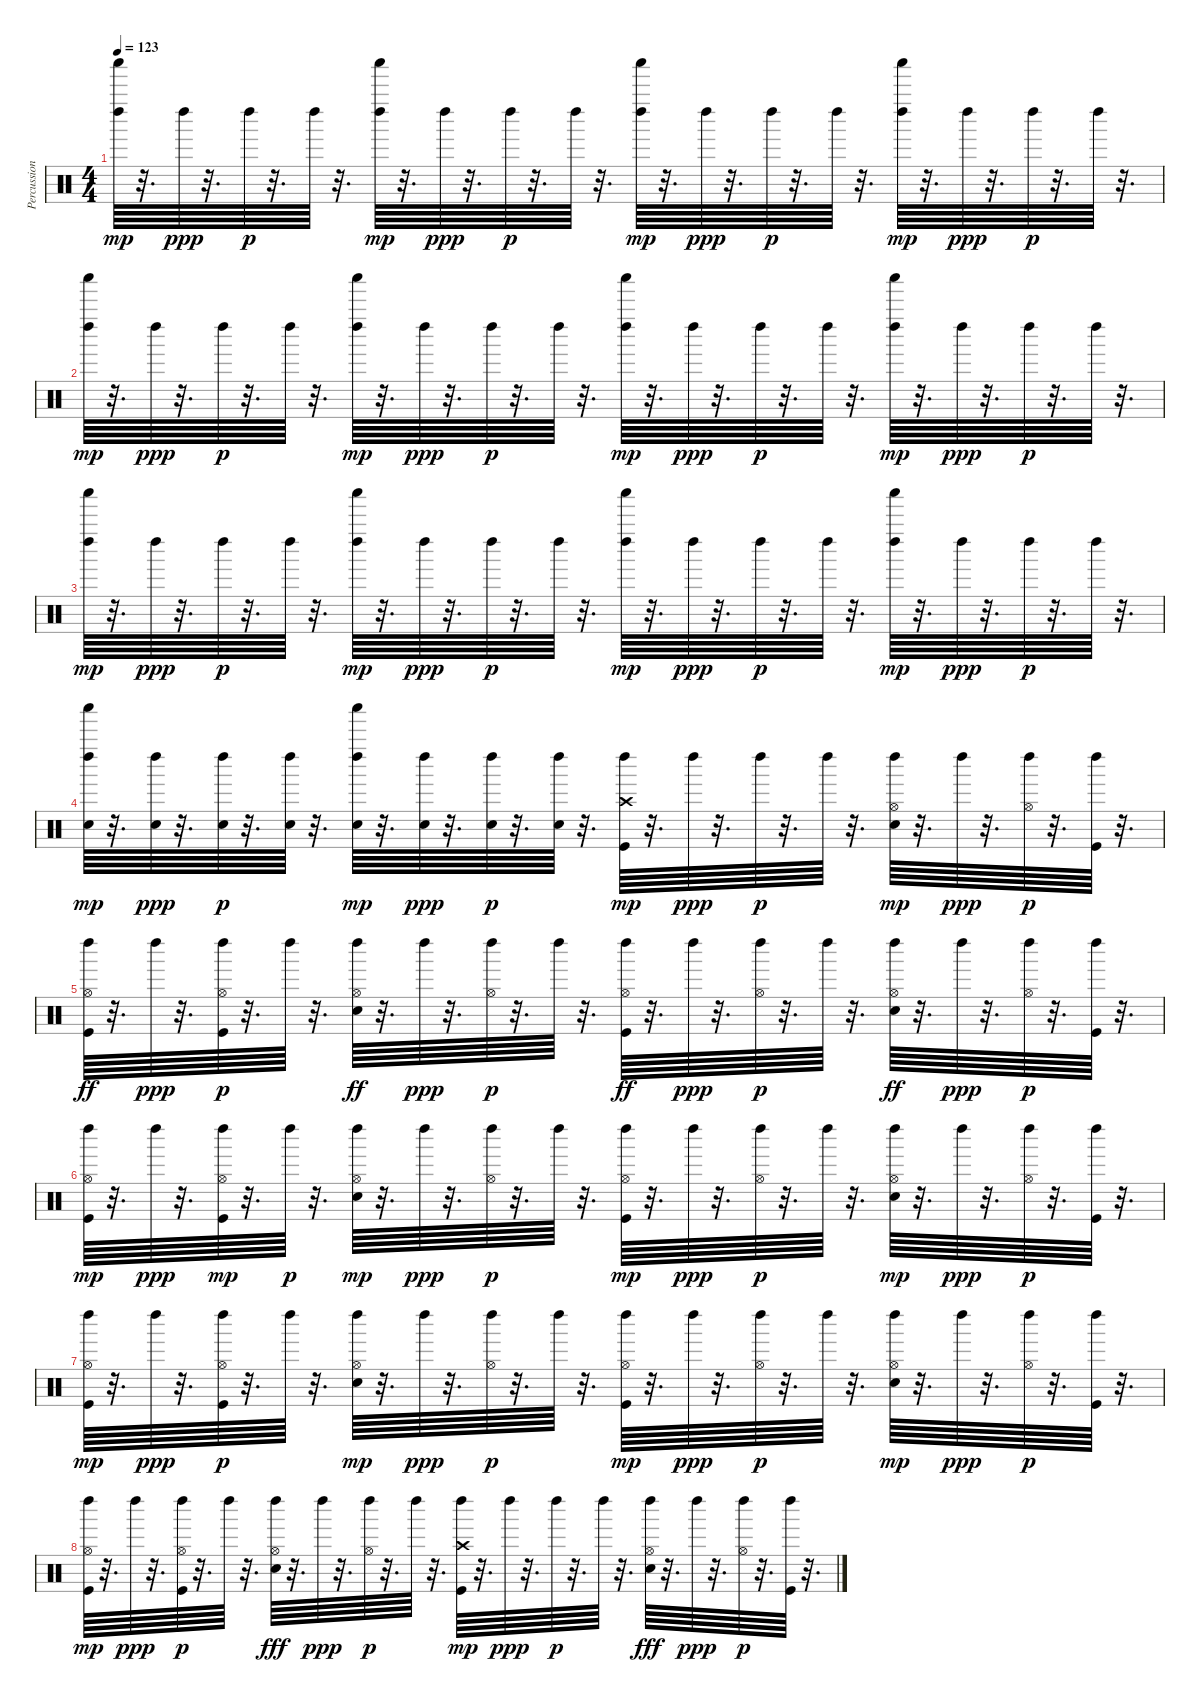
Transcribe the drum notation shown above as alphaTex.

\track ("Percussion" "Percussion") {instrument percussion}
\staff {score}
\articulation defaults
\ts (4 4)
\tempo 123
\clef neutral
\ks c
("Left Maraca (hit)" "Shaker (hit)").64{dy mp} r.32{d} "Left Maraca (hit)".64{dy ppp} r.32{d} "Left Maraca (hit)".64{dy p} r.32{d} "Left Maraca (hit)".64 r.32{d} ("Left Maraca (hit)" "Shaker (hit)").64{dy mp} r.32{d} "Left Maraca (hit)".64{dy ppp} r.32{d} "Left Maraca (hit)".64{dy p} r.32{d} "Left Maraca (hit)".64 r.32{d} ("Left Maraca (hit)" "Shaker (hit)").64{dy mp} r.32{d} "Left Maraca (hit)".64{dy ppp} r.32{d} "Left Maraca (hit)".64{dy p} r.32{d} "Left Maraca (hit)".64 r.32{d} ("Left Maraca (hit)" "Shaker (hit)").64{dy mp} r.32{d} "Left Maraca (hit)".64{dy ppp} r.32{d} "Left Maraca (hit)".64{dy p} r.32{d} "Left Maraca (hit)".64 r.32{d} |
("Left Maraca (hit)" "Shaker (hit)").64{dy mp} r.32{d} "Left Maraca (hit)".64{dy ppp} r.32{d} "Left Maraca (hit)".64{dy p} r.32{d} "Left Maraca (hit)".64 r.32{d} ("Left Maraca (hit)" "Shaker (hit)").64{dy mp} r.32{d} "Left Maraca (hit)".64{dy ppp} r.32{d} "Left Maraca (hit)".64{dy p} r.32{d} "Left Maraca (hit)".64 r.32{d} ("Left Maraca (hit)" "Shaker (hit)").64{dy mp} r.32{d} "Left Maraca (hit)".64{dy ppp} r.32{d} "Left Maraca (hit)".64{dy p} r.32{d} "Left Maraca (hit)".64 r.32{d} ("Left Maraca (hit)" "Shaker (hit)").64{dy mp} r.32{d} "Left Maraca (hit)".64{dy ppp} r.32{d} "Left Maraca (hit)".64{dy p} r.32{d} "Left Maraca (hit)".64 r.32{d} |
("Left Maraca (hit)" "Shaker (hit)").64{dy mp} r.32{d} "Left Maraca (hit)".64{dy ppp} r.32{d} "Left Maraca (hit)".64{dy p} r.32{d} "Left Maraca (hit)".64 r.32{d} ("Left Maraca (hit)" "Shaker (hit)").64{dy mp} r.32{d} "Left Maraca (hit)".64{dy ppp} r.32{d} "Left Maraca (hit)".64{dy p} r.32{d} "Left Maraca (hit)".64 r.32{d} ("Left Maraca (hit)" "Shaker (hit)").64{dy mp} r.32{d} "Left Maraca (hit)".64{dy ppp} r.32{d} "Left Maraca (hit)".64{dy p} r.32{d} "Left Maraca (hit)".64 r.32{d} ("Left Maraca (hit)" "Shaker (hit)").64{dy mp} r.32{d} "Left Maraca (hit)".64{dy ppp} r.32{d} "Left Maraca (hit)".64{dy p} r.32{d} "Left Maraca (hit)".64 r.32{d} |
("Electric Snare (hit)" "Left Maraca (hit)" "Shaker (hit)").64{dy mp} r.32{d} ("Electric Snare (hit)" "Left Maraca (hit)").64{dy ppp} r.32{d} ("Electric Snare (hit)" "Left Maraca (hit)").64{dy p} r.32{d} ("Electric Snare (hit)" "Left Maraca (hit)").64 r.32{d} ("Shaker (hit)" "Electric Snare (hit)" "Left Maraca (hit)").64{dy mp} r.32{d} ("Electric Snare (hit)" "Left Maraca (hit)").64{dy ppp} r.32{d} ("Electric Snare (hit)" "Left Maraca (hit)").64{dy p} r.32{d} ("Electric Snare (hit)" "Left Maraca (hit)").64 r.32{d} ("Kick (hit)" "Crash high (hit)" "Left Maraca (hit)").64{dy mp} r.32{d} "Left Maraca (hit)".64{dy ppp} r.32{d} "Left Maraca (hit)".64{dy p} r.32{d} "Left Maraca (hit)".64 r.32{d} ("Electric Snare (hit)" "Hi-Hat (open)" "Left Maraca (hit)").64{dy mp} r.32{d} "Left Maraca (hit)".64{dy ppp} r.32{d} ("Hi-Hat (open)" "Left Maraca (hit)").64{dy p} r.32{d} ("Kick (hit)" "Left Maraca (hit)").64 r.32{d} |
("Hi-Hat (open)" "Left Maraca (hit)" "Kick (hit)").64{dy ff} r.32{d} "Left Maraca (hit)".64{dy ppp} r.32{d} ("Left Maraca (hit)" "Kick (hit)" "Hi-Hat (open)").64{dy p} r.32{d} "Left Maraca (hit)".64 r.32{d} ("Hi-Hat (open)" "Left Maraca (hit)" "Electric Snare (hit)").64{dy ff} r.32{d} "Left Maraca (hit)".64{dy ppp} r.32{d} ("Hi-Hat (open)" "Left Maraca (hit)").64{dy p} r.32{d} "Left Maraca (hit)".64 r.32{d} ("Hi-Hat (open)" "Left Maraca (hit)" "Kick (hit)").64{dy ff} r.32{d} "Left Maraca (hit)".64{dy ppp} r.32{d} ("Hi-Hat (open)" "Left Maraca (hit)").64{dy p} r.32{d} "Left Maraca (hit)".64 r.32{d} ("Hi-Hat (open)" "Left Maraca (hit)" "Electric Snare (hit)").64{dy ff} r.32{d} "Left Maraca (hit)".64{dy ppp} r.32{d} ("Hi-Hat (open)" "Left Maraca (hit)").64{dy p} r.32{d} ("Kick (hit)" "Left Maraca (hit)").64 r.32{d} |
("Kick (hit)" "Hi-Hat (open)" "Left Maraca (hit)").64{dy mp} r.32{d} "Left Maraca (hit)".64{dy ppp} r.32{d} ("Hi-Hat (open)" "Left Maraca (hit)" "Kick (hit)").64{dy mp} r.32{d} "Left Maraca (hit)".64{dy p} r.32{d} ("Electric Snare (hit)" "Hi-Hat (open)" "Left Maraca (hit)").64{dy mp} r.32{d} "Left Maraca (hit)".64{dy ppp} r.32{d} ("Hi-Hat (open)" "Left Maraca (hit)").64{dy p} r.32{d} "Left Maraca (hit)".64 r.32{d} ("Kick (hit)" "Hi-Hat (open)" "Left Maraca (hit)").64{dy mp} r.32{d} "Left Maraca (hit)".64{dy ppp} r.32{d} ("Hi-Hat (open)" "Left Maraca (hit)").64{dy p} r.32{d} "Left Maraca (hit)".64 r.32{d} ("Electric Snare (hit)" "Hi-Hat (open)" "Left Maraca (hit)").64{dy mp} r.32{d} "Left Maraca (hit)".64{dy ppp} r.32{d} ("Hi-Hat (open)" "Left Maraca (hit)").64{dy p} r.32{d} ("Kick (hit)" "Left Maraca (hit)").64 r.32{d} |
("Kick (hit)" "Hi-Hat (open)" "Left Maraca (hit)").64{dy mp} r.32{d} "Left Maraca (hit)".64{dy ppp} r.32{d} ("Left Maraca (hit)" "Kick (hit)" "Hi-Hat (open)").64{dy p} r.32{d} "Left Maraca (hit)".64 r.32{d} ("Electric Snare (hit)" "Hi-Hat (open)" "Left Maraca (hit)").64{dy mp} r.32{d} "Left Maraca (hit)".64{dy ppp} r.32{d} ("Hi-Hat (open)" "Left Maraca (hit)").64{dy p} r.32{d} "Left Maraca (hit)".64 r.32{d} ("Kick (hit)" "Hi-Hat (open)" "Left Maraca (hit)").64{dy mp} r.32{d} "Left Maraca (hit)".64{dy ppp} r.32{d} ("Hi-Hat (open)" "Left Maraca (hit)").64{dy p} r.32{d} "Left Maraca (hit)".64 r.32{d} ("Electric Snare (hit)" "Hi-Hat (open)" "Left Maraca (hit)").64{dy mp} r.32{d} "Left Maraca (hit)".64{dy ppp} r.32{d} ("Hi-Hat (open)" "Left Maraca (hit)").64{dy p} r.32{d} ("Kick (hit)" "Left Maraca (hit)").64 r.32{d} |
("Kick (hit)" "Hi-Hat (open)" "Left Maraca (hit)").64{dy mp} r.32{d} "Left Maraca (hit)".64{dy ppp} r.32{d} ("Kick (hit)" "Hi-Hat (open)" "Left Maraca (hit)").64{dy p} r.32{d} "Left Maraca (hit)".64 r.32{d} ("Hi-Hat (open)" "Left Maraca (hit)" "Electric Snare (hit)").64{dy fff} r.32{d} "Left Maraca (hit)".64{dy ppp} r.32{d} ("Hi-Hat (open)" "Left Maraca (hit)").64{dy p} r.32{d} "Left Maraca (hit)".64 r.32{d} ("Kick (hit)" "Crash high (hit)" "Left Maraca (hit)").64{dy mp} r.32{d} "Left Maraca (hit)".64{dy ppp} r.32{d} "Left Maraca (hit)".64{dy p} r.32{d} "Left Maraca (hit)".64 r.32{d} ("Hi-Hat (open)" "Left Maraca (hit)" "Electric Snare (hit)").64{dy fff} r.32{d} "Left Maraca (hit)".64{dy ppp} r.32{d} ("Hi-Hat (open)" "Left Maraca (hit)").64{dy p} r.32{d} ("Kick (hit)" "Left Maraca (hit)").64 r.32{d}
